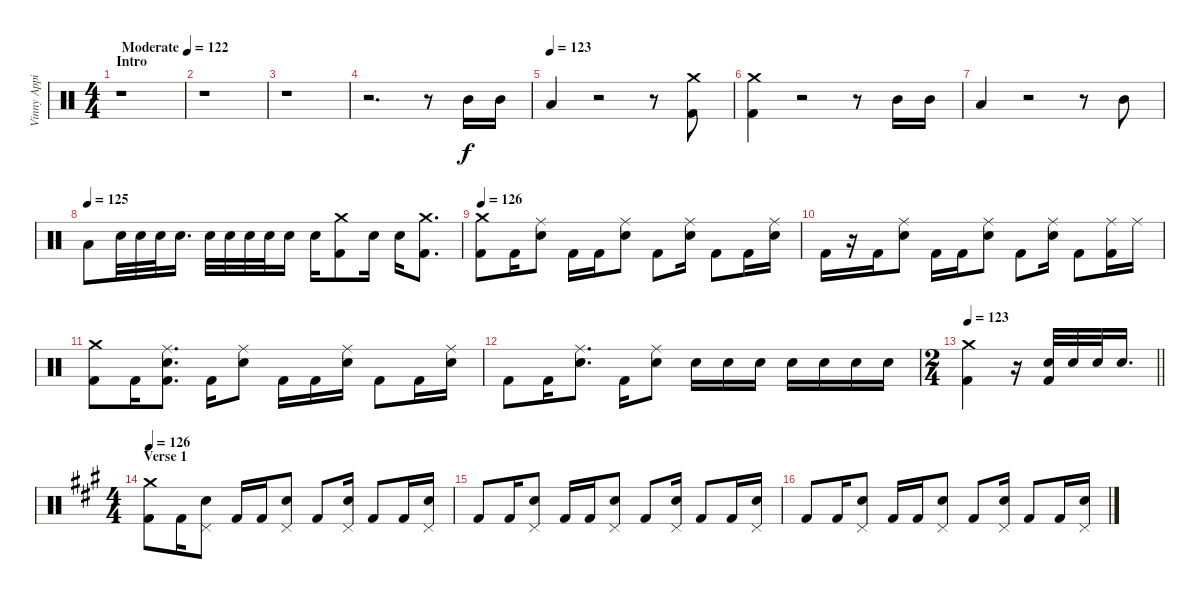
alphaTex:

\track ("Vinny Appice" "Vinny Appi") {instrument percussion}
\staff {score}
\articulation defaults
\ts (4 4)
\section ("" "Intro")
\tempo (122 "Moderate")
\clef neutral
\ks c
r.1{dy f} |
r.1 |
r.1 |
r.2{d} r.8 "Mid Tom (hit)".16 "Mid Tom (hit)".16 |
\tempo (123)
"Low Tom (hit)".4 r.2 r.8 ("Crash medium (hit)" "Kick (hit) 2").8 |
("Kick (hit) 2" "Crash medium (hit)").4 r.2 r.8 "Mid Tom (hit)".16 "Mid Tom (hit)".16 |
"Low Tom (hit)".4 r.2 r.8 "Mid Tom (hit)".8 |
\tempo (125)
"Low Tom (hit)".8 "Snare (hit) 2".32 "Snare (hit) 2".32 "Snare (hit) 2".32 "Snare (hit) 2".16{d} "Snare (hit) 2".32 "Snare (hit) 2".32 "Snare (hit) 2".32 "Snare (hit) 2".32 "Snare (hit) 2".16 "Snare (hit) 2".16 ("Kick (hit) 2" "Crash medium (hit)").8 "Snare (hit) 2".16 "Snare (hit) 2".16 ("Kick (hit) 2" "Crash medium (hit)").8{d} |
\tempo 126
("Crash medium (hit)" "Kick (hit) 2").8 "Kick (hit) 2".16 ("Ride (middle)" "Snare (hit) 2").8 "Kick (hit) 2".16 "Kick (hit) 2".16 ("Snare (hit) 2" "Ride (middle)").8 "Kick (hit) 2".8 ("Snare (hit) 2" "Ride (middle)").16 "Kick (hit) 2".8 "Kick (hit) 2".16 ("Snare (hit) 2" "Ride (middle)").16 |
"Kick (hit) 2".16 r.16 "Kick (hit) 2".16 ("Snare (hit) 2" "Ride (middle)").8 "Kick (hit) 2".16 "Kick (hit) 2".16 ("Snare (hit) 2" "Ride (middle)").8 "Kick (hit) 2".8 ("Snare (hit) 2" "Ride (middle)").16 "Kick (hit) 2".8 ("Ride (middle)" "Kick (hit) 2").16 "Ride (middle)".16 |
("Crash medium (hit)" "Kick (hit) 2").8 "Kick (hit) 2".16 ("Kick (hit) 2" "Snare (hit) 2" "Ride (middle)").8{d} "Kick (hit) 2".16 ("Snare (hit) 2" "Ride (middle)").8 "Kick (hit) 2".16 "Kick (hit) 2".16 ("Snare (hit) 2" "Ride (middle)").16 "Kick (hit) 2".8 "Kick (hit) 2".16 ("Snare (hit) 2" "Ride (middle)").16 |
"Kick (hit) 2".8 "Kick (hit) 2".16 ("Snare (hit) 2" "Ride (middle)").8{d} "Kick (hit) 2".16 ("Ride (middle)" "Snare (hit) 2").8 "Snare (hit) 2".16 "Snare (hit) 2".16 "Snare (hit) 2".16 "Snare (hit) 2".16 "Snare (hit) 2".16 "Snare (hit) 2".16 "Snare (hit) 2".16 |
\ts (2 4)
\tempo 123
\barLineRight lightlight
("Crash medium (hit)" "Kick (hit) 2").4 r.16 ("Kick (hit) 2" "Snare (hit) 2").32 "Snare (hit) 2".32 "Snare (hit) 2".32 "Snare (hit) 2".16{d} |
\ts (4 4)
\section ("" "Verse 1")
\tempo 126
\ks f#minor
("Crash medium (hit)" "Kick (hit) 2").8 "Kick (hit) 2".16 ("Pedal Hi-Hat (hit)" "Snare (hit) 2").8 "Kick (hit) 2".16 "Kick (hit) 2".16 ("Pedal Hi-Hat (hit)" "Snare (hit) 2").8 "Kick (hit) 2".8 ("Snare (hit) 2" "Pedal Hi-Hat (hit)").16 "Kick (hit) 2".8 "Kick (hit) 2".16 ("Snare (hit) 2" "Pedal Hi-Hat (hit)").16 |
"Kick (hit) 2".8 "Kick (hit) 2".16 ("Snare (hit) 2" "Pedal Hi-Hat (hit)").8 "Kick (hit) 2".16 "Kick (hit) 2".16 ("Snare (hit) 2" "Pedal Hi-Hat (hit)").8 "Kick (hit) 2".8 ("Snare (hit) 2" "Pedal Hi-Hat (hit)").16 "Kick (hit) 2".8 "Kick (hit) 2".16 ("Snare (hit) 2" "Pedal Hi-Hat (hit)").16 |
"Kick (hit) 2".8 "Kick (hit) 2".16 ("Snare (hit) 2" "Pedal Hi-Hat (hit)").8 "Kick (hit) 2".16 "Kick (hit) 2".16 ("Snare (hit) 2" "Pedal Hi-Hat (hit)").8 "Kick (hit) 2".8 ("Snare (hit) 2" "Pedal Hi-Hat (hit)").16 "Kick (hit) 2".8 "Kick (hit) 2".16 ("Snare (hit) 2" "Pedal Hi-Hat (hit)").16
